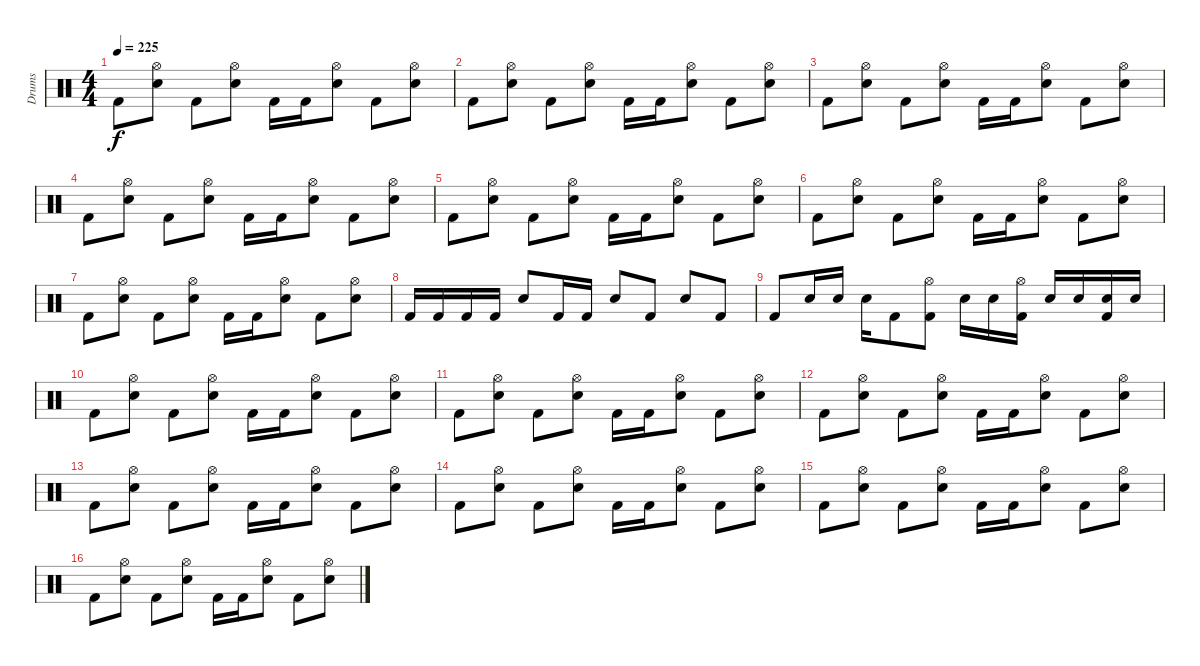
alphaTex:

\track ("Drums" "Drums") {instrument percussion}
\staff {score}
\articulation defaults
\ts (4 4)
\tempo 225
\clef neutral
\ks c "Kick (hit) 2".8{dy f}
("Hi-Hat (open)" "Electric Snare (hit)").8 "Kick (hit) 2".8 ("Hi-Hat (open)" "Electric Snare (hit)").8 "Kick (hit) 2".16 "Kick (hit) 2".16 ("Hi-Hat (open)" "Electric Snare (hit)").8 "Kick (hit) 2".8 ("Hi-Hat (open)" "Electric Snare (hit)").8 |
"Kick (hit) 2".8 ("Hi-Hat (open)" "Electric Snare (hit)").8 "Kick (hit) 2".8 ("Hi-Hat (open)" "Electric Snare (hit)").8 "Kick (hit) 2".16 "Kick (hit) 2".16 ("Hi-Hat (open)" "Electric Snare (hit)").8 "Kick (hit) 2".8 ("Hi-Hat (open)" "Electric Snare (hit)").8 |
"Kick (hit) 2".8 ("Hi-Hat (open)" "Electric Snare (hit)").8 "Kick (hit) 2".8 ("Hi-Hat (open)" "Electric Snare (hit)").8 "Kick (hit) 2".16 "Kick (hit) 2".16 ("Hi-Hat (open)" "Electric Snare (hit)").8 "Kick (hit) 2".8 ("Hi-Hat (open)" "Electric Snare (hit)").8 |
"Kick (hit) 2".8 ("Hi-Hat (open)" "Electric Snare (hit)").8 "Kick (hit) 2".8 ("Hi-Hat (open)" "Electric Snare (hit)").8 "Kick (hit) 2".16 "Kick (hit) 2".16 ("Hi-Hat (open)" "Electric Snare (hit)").8 "Kick (hit) 2".8 ("Hi-Hat (open)" "Electric Snare (hit)").8 |
"Kick (hit) 2".8 ("Hi-Hat (open)" "Electric Snare (hit)").8 "Kick (hit) 2".8 ("Hi-Hat (open)" "Electric Snare (hit)").8 "Kick (hit) 2".16 "Kick (hit) 2".16 ("Hi-Hat (open)" "Electric Snare (hit)").8 "Kick (hit) 2".8 ("Hi-Hat (open)" "Electric Snare (hit)").8 |
"Kick (hit) 2".8 ("Hi-Hat (open)" "Electric Snare (hit)").8 "Kick (hit) 2".8 ("Hi-Hat (open)" "Electric Snare (hit)").8 "Kick (hit) 2".16 "Kick (hit) 2".16 ("Hi-Hat (open)" "Electric Snare (hit)").8 "Kick (hit) 2".8 ("Hi-Hat (open)" "Electric Snare (hit)").8 |
"Kick (hit) 2".8 ("Hi-Hat (open)" "Electric Snare (hit)").8 "Kick (hit) 2".8 ("Hi-Hat (open)" "Electric Snare (hit)").8 "Kick (hit) 2".16 "Kick (hit) 2".16 ("Hi-Hat (open)" "Electric Snare (hit)").8 "Kick (hit) 2".8 ("Hi-Hat (open)" "Electric Snare (hit)").8 |
"Kick (hit) 2".16 "Kick (hit) 2".16 "Kick (hit) 2".16 "Kick (hit) 2".16 "Electric Snare (hit)".8 "Kick (hit) 2".16 "Kick (hit) 2".16 "Electric Snare (hit)".8 "Kick (hit) 2".8 "Electric Snare (hit)".8 "Kick (hit) 2".8 |
"Kick (hit) 2".8 "Electric Snare (hit)".16 "Electric Snare (hit)".16 "Electric Snare (hit)".16 "Kick (hit) 2".8 ("Hi-Hat (open)" "Kick (hit) 2").8 "Electric Snare (hit)".16 "Electric Snare (hit)".16 ("Hi-Hat (open)" "Kick (hit) 2").16 "Electric Snare (hit)".16 "Electric Snare (hit)".16 ("Electric Snare (hit)" "Kick (hit) 2").16 "Electric Snare (hit)".16 |
"Kick (hit) 2".8 ("Hi-Hat (open)" "Electric Snare (hit)").8 "Kick (hit) 2".8 ("Hi-Hat (open)" "Electric Snare (hit)").8 "Kick (hit) 2".16 "Kick (hit) 2".16 ("Hi-Hat (open)" "Electric Snare (hit)").8 "Kick (hit) 2".8 ("Hi-Hat (open)" "Electric Snare (hit)").8 |
"Kick (hit) 2".8 ("Hi-Hat (open)" "Electric Snare (hit)").8 "Kick (hit) 2".8 ("Hi-Hat (open)" "Electric Snare (hit)").8 "Kick (hit) 2".16 "Kick (hit) 2".16 ("Hi-Hat (open)" "Electric Snare (hit)").8 "Kick (hit) 2".8 ("Hi-Hat (open)" "Electric Snare (hit)").8 |
"Kick (hit) 2".8 ("Hi-Hat (open)" "Electric Snare (hit)").8 "Kick (hit) 2".8 ("Hi-Hat (open)" "Electric Snare (hit)").8 "Kick (hit) 2".16 "Kick (hit) 2".16 ("Hi-Hat (open)" "Electric Snare (hit)").8 "Kick (hit) 2".8 ("Hi-Hat (open)" "Electric Snare (hit)").8 |
"Kick (hit) 2".8 ("Hi-Hat (open)" "Electric Snare (hit)").8 "Kick (hit) 2".8 ("Hi-Hat (open)" "Electric Snare (hit)").8 "Kick (hit) 2".16 "Kick (hit) 2".16 ("Hi-Hat (open)" "Electric Snare (hit)").8 "Kick (hit) 2".8 ("Hi-Hat (open)" "Electric Snare (hit)").8 |
"Kick (hit) 2".8 ("Hi-Hat (open)" "Electric Snare (hit)").8 "Kick (hit) 2".8 ("Hi-Hat (open)" "Electric Snare (hit)").8 "Kick (hit) 2".16 "Kick (hit) 2".16 ("Hi-Hat (open)" "Electric Snare (hit)").8 "Kick (hit) 2".8 ("Hi-Hat (open)" "Electric Snare (hit)").8 |
"Kick (hit) 2".8 ("Hi-Hat (open)" "Electric Snare (hit)").8 "Kick (hit) 2".8 ("Hi-Hat (open)" "Electric Snare (hit)").8 "Kick (hit) 2".16 "Kick (hit) 2".16 ("Hi-Hat (open)" "Electric Snare (hit)").8 "Kick (hit) 2".8 ("Hi-Hat (open)" "Electric Snare (hit)").8 |
"Kick (hit) 2".8 ("Hi-Hat (open)" "Electric Snare (hit)").8 "Kick (hit) 2".8 ("Hi-Hat (open)" "Electric Snare (hit)").8 "Kick (hit) 2".16 "Kick (hit) 2".16 ("Hi-Hat (open)" "Electric Snare (hit)").8 "Kick (hit) 2".8 ("Hi-Hat (open)" "Electric Snare (hit)").8
